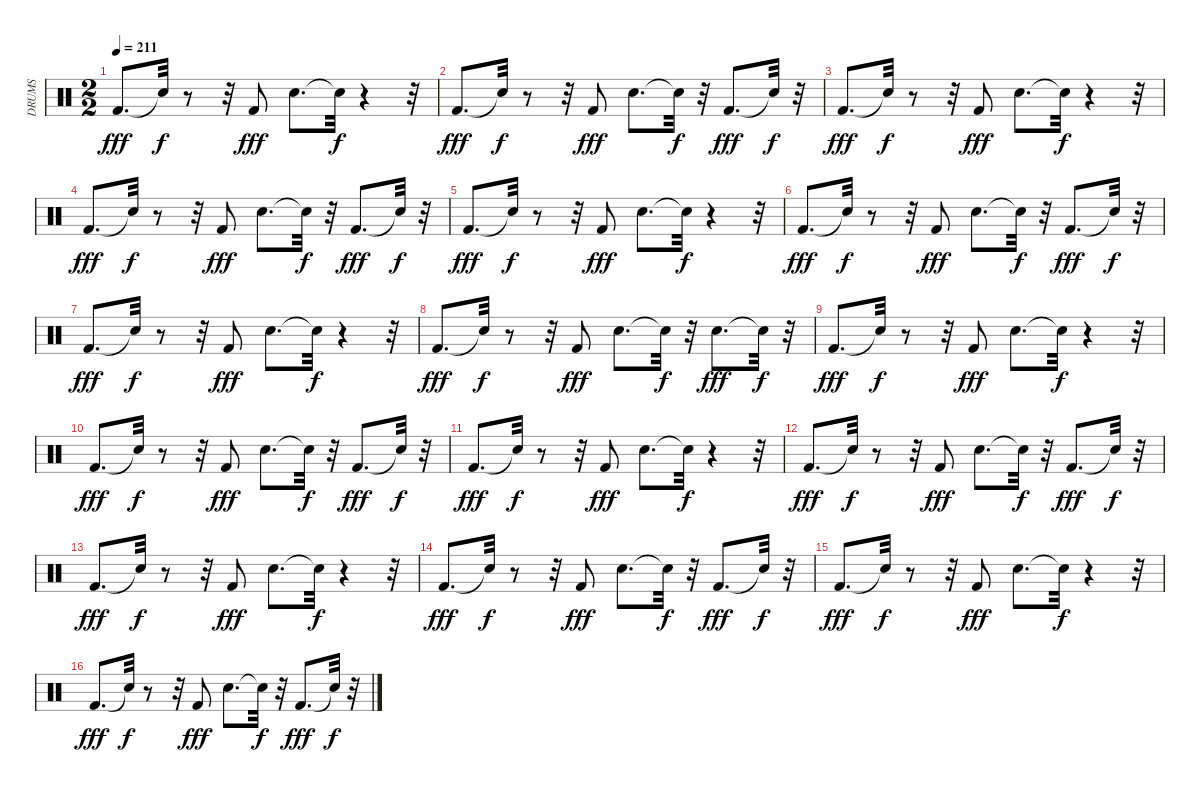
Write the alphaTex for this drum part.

\track ("DRUMS" "DRUMS") {instrument percussion}
\staff {score}
\articulation defaults
\ts (2 2)
\tempo 211
\clef neutral
\ks c "Kick (hit) 2".8{d dy fff} "Snare (hit)"{t}.32{dy f}
r.8 r.32 "Kick (hit) 2".8{dy fff} "Snare (hit) 2".8{d} "Snare (hit)"{t}.32{dy f} r.4 r.32 |
"Kick (hit) 2".8{d dy fff} "Snare (hit)"{t}.32{dy f} r.8 r.32 "Kick (hit) 2".8{dy fff} "Snare (hit) 2".8{d} "Snare (hit)"{t}.32{dy f} r.32 "Kick (hit) 2".8{d dy fff} "Snare (hit)"{t}.32{dy f} r.32 |
"Kick (hit) 2".8{d dy fff} "Snare (hit)"{t}.32{dy f} r.8 r.32 "Kick (hit) 2".8{dy fff} "Snare (hit) 2".8{d} "Snare (hit)"{t}.32{dy f} r.4 r.32 |
"Kick (hit) 2".8{d dy fff} "Snare (hit)"{t}.32{dy f} r.8 r.32 "Kick (hit) 2".8{dy fff} "Snare (hit) 2".8{d} "Snare (hit)"{t}.32{dy f} r.32 "Kick (hit) 2".8{d dy fff} "Snare (hit)"{t}.32{dy f} r.32 |
"Kick (hit) 2".8{d dy fff} "Snare (hit)"{t}.32{dy f} r.8 r.32 "Kick (hit) 2".8{dy fff} "Snare (hit) 2".8{d} "Snare (hit)"{t}.32{dy f} r.4 r.32 |
"Kick (hit) 2".8{d dy fff} "Snare (hit)"{t}.32{dy f} r.8 r.32 "Kick (hit) 2".8{dy fff} "Snare (hit) 2".8{d} "Snare (hit)"{t}.32{dy f} r.32 "Kick (hit) 2".8{d dy fff} "Snare (hit)"{t}.32{dy f} r.32 |
"Kick (hit) 2".8{d dy fff} "Snare (hit)"{t}.32{dy f} r.8 r.32 "Kick (hit) 2".8{dy fff} "Snare (hit) 2".8{d} "Snare (hit)"{t}.32{dy f} r.4 r.32 |
"Kick (hit) 2".8{d dy fff} "Snare (hit)"{t}.32{dy f} r.8 r.32 "Kick (hit) 2".8{dy fff} "Snare (hit) 2".8{d} "Snare (hit)"{t}.32{dy f} r.32 "Snare (hit) 2".8{d dy fff} "Snare (hit)"{t}.32{dy f} r.32 |
"Kick (hit) 2".8{d dy fff} "Snare (hit)"{t}.32{dy f} r.8 r.32 "Kick (hit) 2".8{dy fff} "Snare (hit) 2".8{d} "Snare (hit)"{t}.32{dy f} r.4 r.32 |
"Kick (hit) 2".8{d dy fff} "Snare (hit)"{t}.32{dy f} r.8 r.32 "Kick (hit) 2".8{dy fff} "Snare (hit) 2".8{d} "Snare (hit)"{t}.32{dy f} r.32 "Kick (hit) 2".8{d dy fff} "Snare (hit)"{t}.32{dy f} r.32 |
"Kick (hit) 2".8{d dy fff} "Snare (hit)"{t}.32{dy f} r.8 r.32 "Kick (hit) 2".8{dy fff} "Snare (hit) 2".8{d} "Snare (hit)"{t}.32{dy f} r.4 r.32 |
"Kick (hit) 2".8{d dy fff} "Snare (hit)"{t}.32{dy f} r.8 r.32 "Kick (hit) 2".8{dy fff} "Snare (hit) 2".8{d} "Snare (hit)"{t}.32{dy f} r.32 "Kick (hit) 2".8{d dy fff} "Snare (hit)"{t}.32{dy f} r.32 |
"Kick (hit) 2".8{d dy fff} "Snare (hit)"{t}.32{dy f} r.8 r.32 "Kick (hit) 2".8{dy fff} "Snare (hit) 2".8{d} "Snare (hit)"{t}.32{dy f} r.4 r.32 |
"Kick (hit) 2".8{d dy fff} "Snare (hit)"{t}.32{dy f} r.8 r.32 "Kick (hit) 2".8{dy fff} "Snare (hit) 2".8{d} "Snare (hit)"{t}.32{dy f} r.32 "Kick (hit) 2".8{d dy fff} "Snare (hit)"{t}.32{dy f} r.32 |
"Kick (hit) 2".8{d dy fff} "Snare (hit)"{t}.32{dy f} r.8 r.32 "Kick (hit) 2".8{dy fff} "Snare (hit) 2".8{d} "Snare (hit)"{t}.32{dy f} r.4 r.32 |
"Kick (hit) 2".8{d dy fff} "Snare (hit)"{t}.32{dy f} r.8 r.32 "Kick (hit) 2".8{dy fff} "Snare (hit) 2".8{d} "Snare (hit)"{t}.32{dy f} r.32 "Kick (hit) 2".8{d dy fff} "Snare (hit)"{t}.32{dy f} r.32
